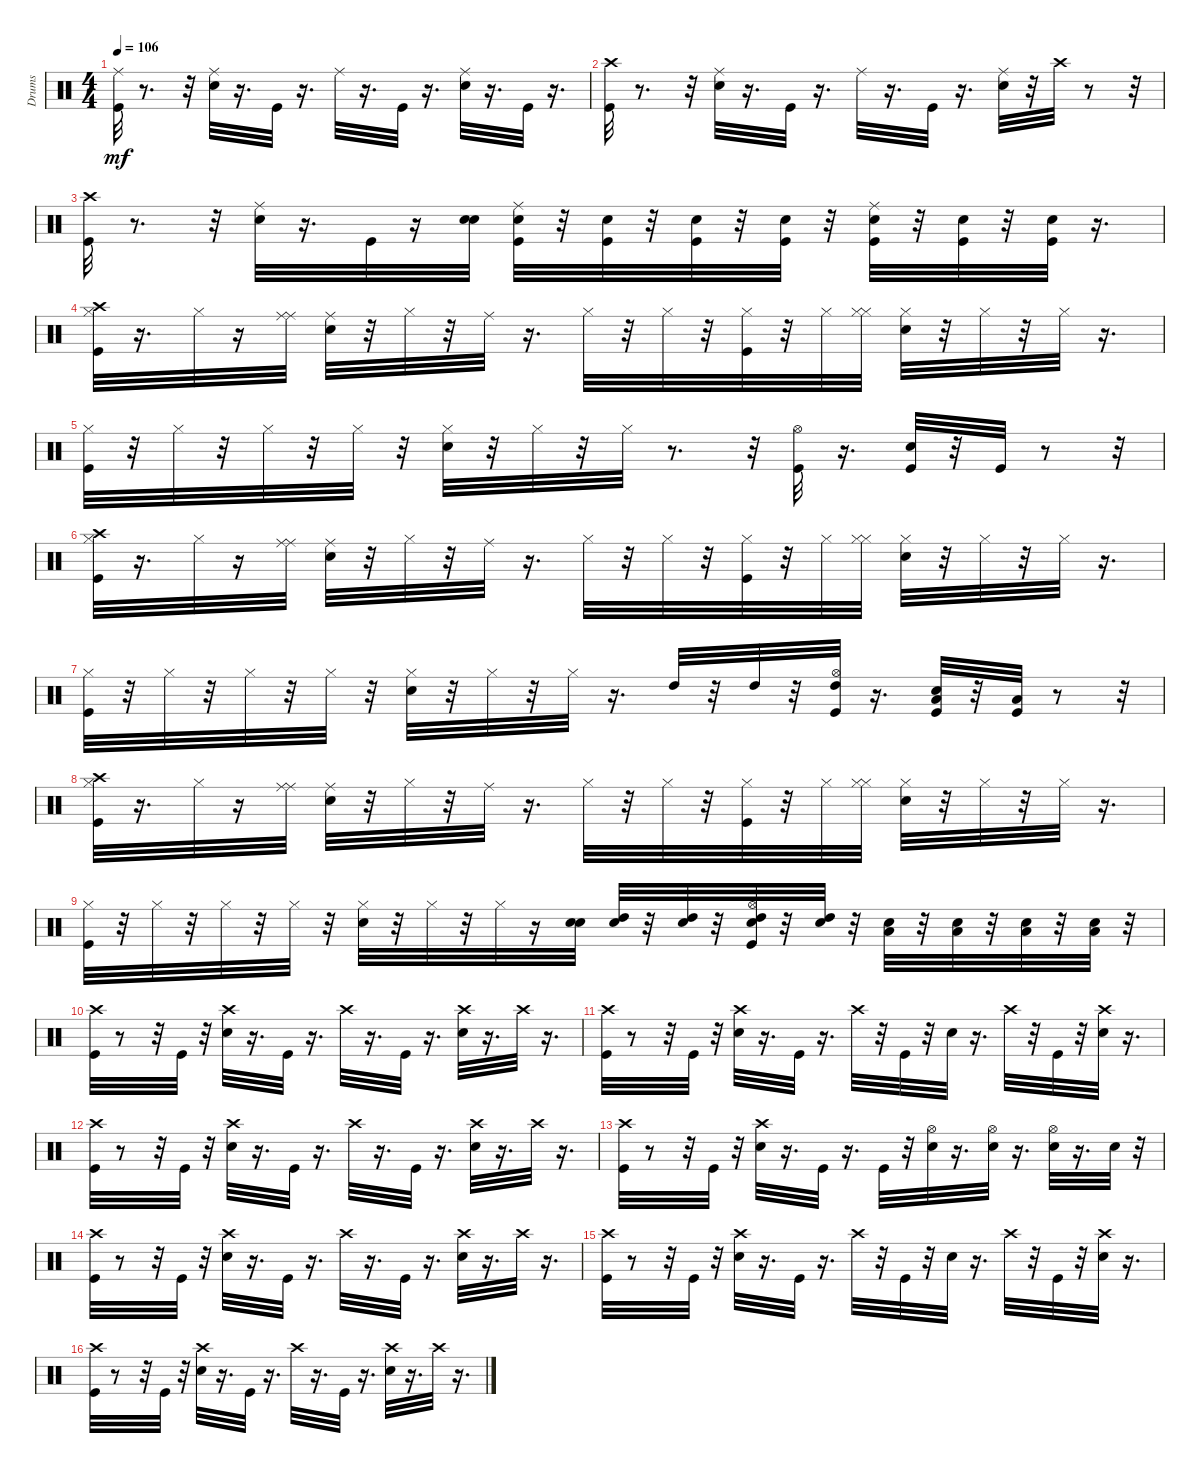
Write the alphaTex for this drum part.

\track ("Drums               " "Drums     ") {instrument percussion}
\staff {score}
\articulation defaults
\ts (4 4)
\tempo 106
\clef neutral
\ks c
("Ride (middle)" "Kick (hit)").32{dy mf} r.8{d} r.32 ("Ride (middle)" "Snare (hit) 2").32 r.16{d} "Kick (hit)".32 r.16{d} "Ride (middle)".32 r.16{d} "Kick (hit)".32 r.16{d} ("Ride (middle)" "Snare (hit) 2").32 r.16{d} "Kick (hit)".32 r.16{d} |
("Kick (hit)" "Crash high (hit)").32 r.8{d} r.32 ("Ride (middle)" "Snare (hit) 2").32 r.16{d} "Kick (hit)".32 r.16{d} "Ride (middle)".32 r.16{d} "Kick (hit)".32 r.16{d} ("Ride (middle)" "Snare (hit) 2").32 r.32 "Crash high (hit)".32 r.8 r.32 |
("Kick (hit)" "Crash high (hit)").32 r.8{d} r.32 ("Ride (middle)" "Snare (hit) 2").32 r.16{d} "Kick (hit)".32 r.16 ("Snare (hit) 2" "Snare (hit) 2").32 ("Ride (middle)" "Snare (hit) 2" "Kick (hit)").32 r.32 ("Snare (hit) 2" "Kick (hit)").32 r.32 ("Kick (hit)" "Snare (hit) 2").32 r.32 ("Snare (hit) 2" "Kick (hit)").32 r.32 ("Ride (middle)" "Snare (hit) 2" "Kick (hit)").32 r.32 ("Snare (hit) 2" "Kick (hit)").32 r.32 ("Kick (hit)" "Snare (hit) 2").32 r.16{d} |
("Crash high (hit)" "Hi-Hat (closed)" "Kick (hit)").32 r.16{d} "Hi-Hat (closed)".32 r.16 ("Ride (middle)" "Ride (middle)").32 ("Ride (middle)" "Snare (hit) 2").32 r.32 "Hi-Hat (closed)".32 r.32 "Ride (middle)".32 r.16{d} "Hi-Hat (closed)".32 r.32 "Hi-Hat (closed)".32 r.32 ("Hi-Hat (closed)" "Kick (hit)").32 r.32 "Hi-Hat (closed)".32 ("Hi-Hat (closed)" "Hi-Hat (closed)").32 ("Hi-Hat (closed)" "Snare (hit) 2").32 r.32 "Hi-Hat (closed)".32 r.32 "Hi-Hat (closed)".32 r.16{d} |
("Hi-Hat (closed)" "Kick (hit)").32 r.32 "Hi-Hat (closed)".32 r.32 "Hi-Hat (closed)".32 r.32 "Hi-Hat (closed)".32 r.32 ("Snare (hit) 2" "Hi-Hat (closed)").32 r.32 "Hi-Hat (closed)".32 r.32 "Hi-Hat (closed)".32 r.8{d} r.32 ("Hi-Hat (open)" "Kick (hit)").32 r.16{d} ("Kick (hit)" "Snare (hit) 2").32 r.32 "Kick (hit)".32 r.8 r.32 |
("Crash high (hit)" "Hi-Hat (closed)" "Kick (hit)").32 r.16{d} "Hi-Hat (closed)".32 r.16 ("Ride (middle)" "Ride (middle)").32 ("Ride (middle)" "Snare (hit) 2").32 r.32 "Hi-Hat (closed)".32 r.32 "Ride (middle)".32 r.16{d} "Hi-Hat (closed)".32 r.32 "Hi-Hat (closed)".32 r.32 ("Hi-Hat (closed)" "Kick (hit)").32 r.32 "Hi-Hat (closed)".32 ("Hi-Hat (closed)" "Hi-Hat (closed)").32 ("Hi-Hat (closed)" "Snare (hit) 2").32 r.32 "Hi-Hat (closed)".32 r.32 "Hi-Hat (closed)".32 r.16{d} |
("Hi-Hat (closed)" "Kick (hit)").32 r.32 "Hi-Hat (closed)".32 r.32 "Hi-Hat (closed)".32 r.32 "Hi-Hat (closed)".32 r.32 ("Snare (hit) 2" "Hi-Hat (closed)").32 r.32 "Hi-Hat (closed)".32 r.32 "Hi-Hat (closed)".32 r.16{d} "High Tom (hit)".32 r.32 "High Tom (hit)".32 r.32 ("Hi-Hat (open)" "Kick (hit)" "High Tom (hit)").32 r.16{d} ("Kick (hit)" "Snare (hit) 2" "Low Tom (hit)").32 r.32 ("Kick (hit)" "Low Tom (hit)").32 r.8 r.32 |
("Crash high (hit)" "Hi-Hat (closed)" "Kick (hit)").32 r.16{d} "Hi-Hat (closed)".32 r.16 ("Ride (middle)" "Ride (middle)").32 ("Ride (middle)" "Snare (hit) 2").32 r.32 "Hi-Hat (closed)".32 r.32 "Ride (middle)".32 r.16{d} "Hi-Hat (closed)".32 r.32 "Hi-Hat (closed)".32 r.32 ("Hi-Hat (closed)" "Kick (hit)").32 r.32 "Hi-Hat (closed)".32 ("Hi-Hat (closed)" "Hi-Hat (closed)").32 ("Hi-Hat (closed)" "Snare (hit) 2").32 r.32 "Hi-Hat (closed)".32 r.32 "Hi-Hat (closed)".32 r.16{d} |
("Hi-Hat (closed)" "Kick (hit)").32 r.32 "Hi-Hat (closed)".32 r.32 "Hi-Hat (closed)".32 r.32 "Hi-Hat (closed)".32 r.32 ("Snare (hit) 2" "Hi-Hat (closed)").32 r.32 "Hi-Hat (closed)".32 r.32 "Hi-Hat (closed)".32 r.16 ("Snare (hit) 2" "Snare (hit) 2").32 ("Snare (hit) 2" "High Tom (hit)").32 r.32 ("Snare (hit) 2" "High Tom (hit)").32 r.32 ("Hi-Hat (open)" "Snare (hit) 2" "Kick (hit)" "High Tom (hit)").32 r.32 ("Snare (hit) 2" "High Tom (hit)").32 r.32 ("Snare (hit) 2" "Low Tom (hit)").32 r.32 ("Snare (hit) 2" "Low Tom (hit)").32 r.32 ("Snare (hit) 2" "Low Tom (hit)").32 r.32 ("Snare (hit) 2" "Low Tom (hit)").32 r.32 |
("Crash high (hit)" "Kick (hit)").32 r.8 r.32 "Kick (hit)".32 r.32 ("Crash high (hit)" "Snare (hit) 2").32 r.16{d} "Kick (hit)".32 r.16{d} "Crash high (hit)".32 r.16{d} "Kick (hit)".32 r.16{d} ("Crash high (hit)" "Snare (hit) 2").32 r.16{d} "Crash high (hit)".32 r.16{d} |
("Crash high (hit)" "Kick (hit)").32 r.8 r.32 "Kick (hit)".32 r.32 ("Crash high (hit)" "Snare (hit) 2").32 r.16{d} "Kick (hit)".32 r.16{d} "Crash high (hit)".32 r.32 "Kick (hit)".32 r.32 "Snare (hit) 2".32 r.16{d} "Crash high (hit)".32 r.32 "Kick (hit)".32 r.32 ("Crash high (hit)" "Snare (hit) 2").32 r.16{d} |
("Crash high (hit)" "Kick (hit)").32 r.8 r.32 "Kick (hit)".32 r.32 ("Crash high (hit)" "Snare (hit) 2").32 r.16{d} "Kick (hit)".32 r.16{d} "Crash high (hit)".32 r.16{d} "Kick (hit)".32 r.16{d} ("Crash high (hit)" "Snare (hit) 2").32 r.16{d} "Crash high (hit)".32 r.16{d} |
("Crash high (hit)" "Kick (hit)").32 r.8 r.32 "Kick (hit)".32 r.32 ("Crash high (hit)" "Snare (hit) 2").32 r.16{d} "Kick (hit)".32 r.16{d} "Kick (hit)".32 r.32 ("Snare (hit) 2" "Hi-Hat (open)").32 r.16{d} ("Snare (hit) 2" "Hi-Hat (open)").32 r.16{d} ("Hi-Hat (open)" "Snare (hit) 2").32 r.16{d} "Snare (hit) 2".32 r.32 |
("Crash high (hit)" "Kick (hit)").32 r.8 r.32 "Kick (hit)".32 r.32 ("Crash high (hit)" "Snare (hit) 2").32 r.16{d} "Kick (hit)".32 r.16{d} "Crash high (hit)".32 r.16{d} "Kick (hit)".32 r.16{d} ("Crash high (hit)" "Snare (hit) 2").32 r.16{d} "Crash high (hit)".32 r.16{d} |
("Crash high (hit)" "Kick (hit)").32 r.8 r.32 "Kick (hit)".32 r.32 ("Crash high (hit)" "Snare (hit) 2").32 r.16{d} "Kick (hit)".32 r.16{d} "Crash high (hit)".32 r.32 "Kick (hit)".32 r.32 "Snare (hit) 2".32 r.16{d} "Crash high (hit)".32 r.32 "Kick (hit)".32 r.32 ("Crash high (hit)" "Snare (hit) 2").32 r.16{d} |
("Crash high (hit)" "Kick (hit)").32 r.8 r.32 "Kick (hit)".32 r.32 ("Crash high (hit)" "Snare (hit) 2").32 r.16{d} "Kick (hit)".32 r.16{d} "Crash high (hit)".32 r.16{d} "Kick (hit)".32 r.16{d} ("Crash high (hit)" "Snare (hit) 2").32 r.16{d} "Crash high (hit)".32 r.16{d}
